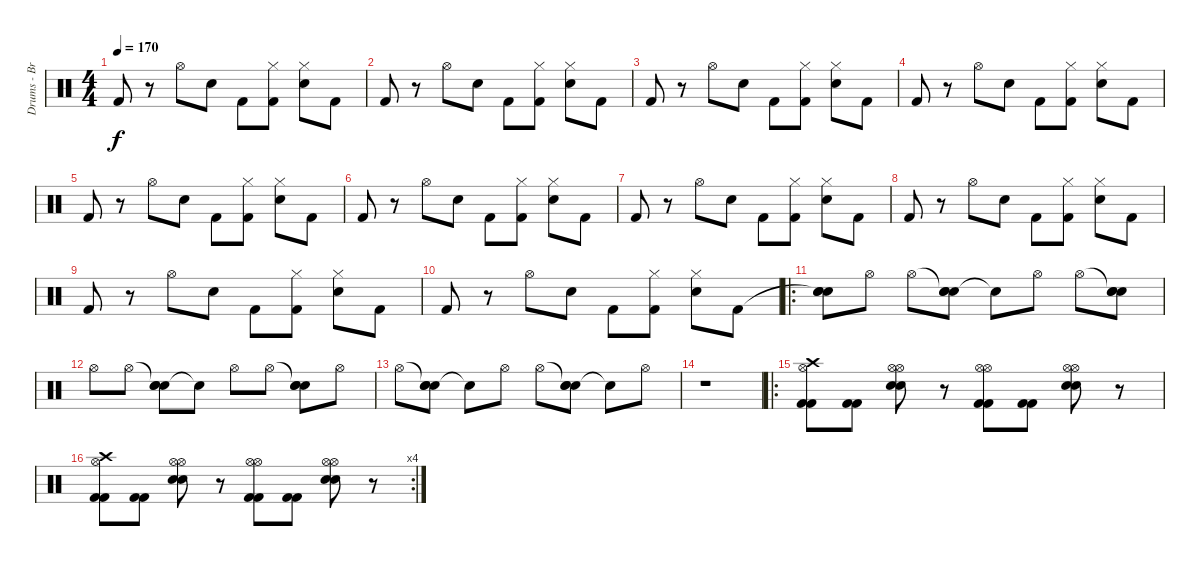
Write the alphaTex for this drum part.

\track ("Drums - Branden Steineckert" "Drums - Br") {instrument percussion}
\staff {score}
\articulation defaults
\ts (4 4)
\tempo 170
\clef neutral
\ks c "Kick (hit) 2".8{dy f}
r.8 "Hi-Hat (open)".8 "Electric Snare (hit)".8 "Kick (hit) 2".8 ("Hi-Hat (closed)" "Kick (hit) 2").8 ("Hi-Hat (closed)" "Electric Snare (hit)").8 "Kick (hit) 2".8 |
"Kick (hit) 2".8 r.8 "Hi-Hat (open)".8 "Electric Snare (hit)".8 "Kick (hit) 2".8 ("Hi-Hat (closed)" "Kick (hit) 2").8 ("Hi-Hat (closed)" "Electric Snare (hit)").8 "Kick (hit) 2".8 |
"Kick (hit) 2".8 r.8 "Hi-Hat (open)".8 "Electric Snare (hit)".8 "Kick (hit) 2".8 ("Hi-Hat (closed)" "Kick (hit) 2").8 ("Hi-Hat (closed)" "Electric Snare (hit)").8 "Kick (hit) 2".8 |
"Kick (hit) 2".8 r.8 "Hi-Hat (open)".8 "Electric Snare (hit)".8 "Kick (hit) 2".8 ("Hi-Hat (closed)" "Kick (hit) 2").8 ("Hi-Hat (closed)" "Electric Snare (hit)").8 "Kick (hit) 2".8 |
"Kick (hit) 2".8 r.8 "Hi-Hat (open)".8 "Electric Snare (hit)".8 "Kick (hit) 2".8 ("Hi-Hat (closed)" "Kick (hit) 2").8 ("Hi-Hat (closed)" "Electric Snare (hit)").8 "Kick (hit) 2".8 |
"Kick (hit) 2".8 r.8 "Hi-Hat (open)".8 "Electric Snare (hit)".8 "Kick (hit) 2".8 ("Hi-Hat (closed)" "Kick (hit) 2").8 ("Hi-Hat (closed)" "Electric Snare (hit)").8 "Kick (hit) 2".8 |
"Kick (hit) 2".8 r.8 "Hi-Hat (open)".8 "Electric Snare (hit)".8 "Kick (hit) 2".8 ("Hi-Hat (closed)" "Kick (hit) 2").8 ("Hi-Hat (closed)" "Electric Snare (hit)").8 "Kick (hit) 2".8 |
"Kick (hit) 2".8 r.8 "Hi-Hat (open)".8 "Electric Snare (hit)".8 "Kick (hit) 2".8 ("Hi-Hat (closed)" "Kick (hit) 2").8 ("Hi-Hat (closed)" "Electric Snare (hit)").8 "Kick (hit) 2".8 |
"Kick (hit) 2".8 r.8 "Hi-Hat (open)".8 "Electric Snare (hit)".8 "Kick (hit) 2".8 ("Hi-Hat (closed)" "Kick (hit) 2").8 ("Hi-Hat (closed)" "Electric Snare (hit)").8 "Kick (hit) 2".8 |
"Kick (hit) 2".8 r.8 "Hi-Hat (open)".8 "Electric Snare (hit)".8 "Kick (hit) 2".8 ("Hi-Hat (closed)" "Kick (hit) 2").8 ("Hi-Hat (closed)" "Electric Snare (hit)").8 "Kick (hit) 2".8 |
\ro
("Snare (hit)"{t} "Electric Snare (hit)" "Electric Snare (hit)").8 "Hi-Hat (open)".8 "Hi-Hat (open)".8 ("Snare (hit)"{t} "Electric Snare (hit)" "Electric Snare (hit)").8 "Snare (hit)"{t}.8 "Hi-Hat (open)".8 "Hi-Hat (open)".8 ("Snare (hit)"{t} "Electric Snare (hit)" "Electric Snare (hit)").8 |
"Hi-Hat (open)".8 "Hi-Hat (open)".8 ("Snare (hit)"{t} "Electric Snare (hit)" "Electric Snare (hit)").8 "Snare (hit)"{t}.8 "Hi-Hat (open)".8 "Hi-Hat (open)".8 ("Snare (hit)"{t} "Electric Snare (hit)" "Electric Snare (hit)").8 "Hi-Hat (open)".8 |
"Hi-Hat (open)".8 ("Snare (hit)"{t} "Electric Snare (hit)" "Electric Snare (hit)").8 "Snare (hit)"{t}.8 "Hi-Hat (open)".8 "Hi-Hat (open)".8 ("Snare (hit)"{t} "Electric Snare (hit)" "Electric Snare (hit)").8 "Snare (hit)"{t}.8 "Hi-Hat (open)".8 |
r.1 |
\ro
("Hi-Hat (open)" "Crash high (hit)" "Kick (hit) 2" "Kick (hit) 2").8 ("Kick (hit) 2" "Kick (hit) 2").8 ("Hi-Hat (open)" "Hi-Hat (open)" "Electric Snare (hit)" "Electric Snare (hit)").8 r.8 ("Hi-Hat (open)" "Hi-Hat (open)" "Kick (hit) 2" "Kick (hit) 2").8 ("Kick (hit) 2" "Kick (hit) 2").8 ("Hi-Hat (open)" "Hi-Hat (open)" "Electric Snare (hit)" "Electric Snare (hit)").8 r.8 |
\rc 4
("Hi-Hat (open)" "Crash high (hit)" "Kick (hit) 2" "Kick (hit) 2").8 ("Kick (hit) 2" "Kick (hit) 2").8 ("Hi-Hat (open)" "Hi-Hat (open)" "Electric Snare (hit)" "Electric Snare (hit)").8 r.8 ("Hi-Hat (open)" "Hi-Hat (open)" "Kick (hit) 2" "Kick (hit) 2").8 ("Kick (hit) 2" "Kick (hit) 2").8 ("Hi-Hat (open)" "Hi-Hat (open)" "Electric Snare (hit)" "Electric Snare (hit)").8 r.8
